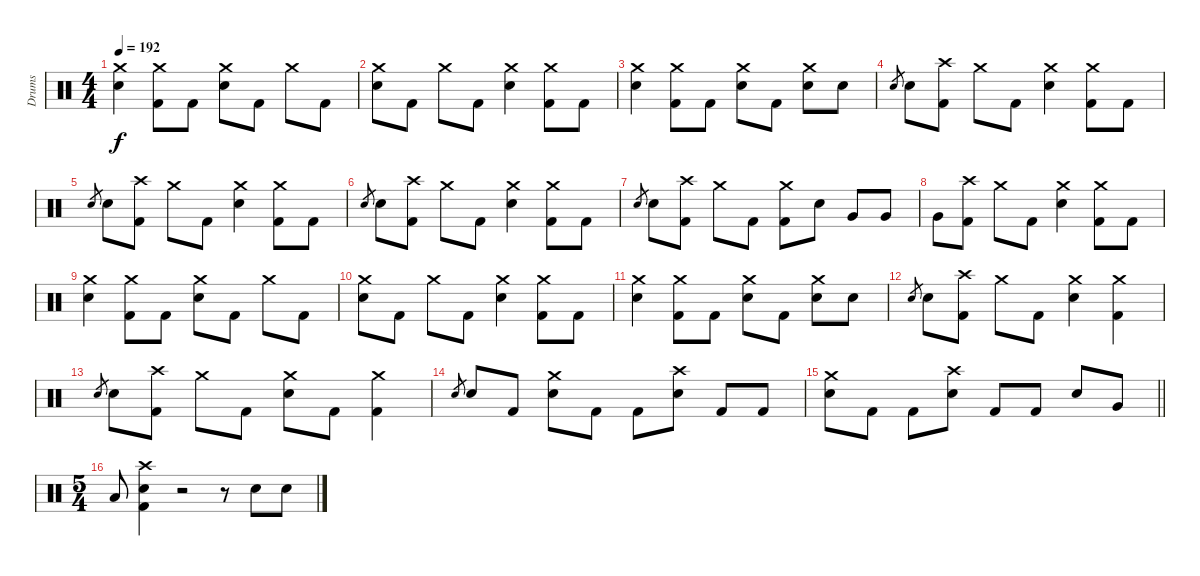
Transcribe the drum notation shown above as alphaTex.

\track ("Drums" "Drums") {instrument percussion}
\staff {score}
\articulation defaults
\ts (4 4)
\tempo 192
\clef neutral
\ks c
("Crash medium (hit)" "Electric Snare (hit)").4{dy f} ("Crash medium (hit)" "Kick (hit) 2").8 "Kick (hit) 2".8 ("Crash medium (hit)" "Electric Snare (hit)").8 "Kick (hit) 2".8 "Crash medium (hit)".8 "Kick (hit) 2".8 |
("Crash medium (hit)" "Electric Snare (hit)").8 "Kick (hit) 2".8 "Crash medium (hit)".8 "Kick (hit) 2".8 ("Crash medium (hit)" "Electric Snare (hit)").4 ("Crash medium (hit)" "Kick (hit) 2").8 "Kick (hit) 2".8 |
("Crash medium (hit)" "Electric Snare (hit)").4 ("Crash medium (hit)" "Kick (hit) 2").8 "Kick (hit) 2".8 ("Crash medium (hit)" "Electric Snare (hit)").8 "Kick (hit) 2".8 ("Crash medium (hit)" "Electric Snare (hit)").8 "Electric Snare (hit)".8 |
"Electric Snare (hit)".8{gr} "Electric Snare (hit)".8 ("Crash high (hit)" "Kick (hit) 2").8 "Crash medium (hit)".8 "Kick (hit) 2".8 ("Crash medium (hit)" "Electric Snare (hit)").4 ("Crash medium (hit)" "Kick (hit) 2").8 "Kick (hit) 2".8 |
"Electric Snare (hit)".8{gr} "Electric Snare (hit)".8 ("Crash high (hit)" "Kick (hit) 2").8 "Crash medium (hit)".8 "Kick (hit) 2".8 ("Crash medium (hit)" "Electric Snare (hit)").4 ("Crash medium (hit)" "Kick (hit) 2").8 "Kick (hit) 2".8 |
"Electric Snare (hit)".8{gr} "Electric Snare (hit)".8 ("Crash high (hit)" "Kick (hit) 2").8 "Crash medium (hit)".8 "Kick (hit) 2".8 ("Crash medium (hit)" "Electric Snare (hit)").4 ("Crash medium (hit)" "Kick (hit) 2").8 "Kick (hit) 2".8 |
"Electric Snare (hit)".8{gr} "Electric Snare (hit)".8 ("Crash high (hit)" "Kick (hit) 2").8 "Crash medium (hit)".8 "Kick (hit) 2".8 ("Crash medium (hit)" "Kick (hit) 2").8 "Electric Snare (hit)".8 "Very Low Tom (hit)".8 "Very Low Tom (hit)".8 |
"Very Low Tom (hit)".8 ("Crash high (hit)" "Kick (hit) 2").8 "Crash medium (hit)".8 "Kick (hit) 2".8 ("Crash medium (hit)" "Electric Snare (hit)").4 ("Crash medium (hit)" "Kick (hit) 2").8 "Kick (hit) 2".8 |
("Crash medium (hit)" "Electric Snare (hit)").4 ("Crash medium (hit)" "Kick (hit) 2").8 "Kick (hit) 2".8 ("Crash medium (hit)" "Electric Snare (hit)").8 "Kick (hit) 2".8 "Crash medium (hit)".8 "Kick (hit) 2".8 |
("Crash medium (hit)" "Electric Snare (hit)").8 "Kick (hit) 2".8 "Crash medium (hit)".8 "Kick (hit) 2".8 ("Crash medium (hit)" "Electric Snare (hit)").4 ("Crash medium (hit)" "Kick (hit) 2").8 "Kick (hit) 2".8 |
("Crash medium (hit)" "Electric Snare (hit)").4 ("Crash medium (hit)" "Kick (hit) 2").8 "Kick (hit) 2".8 ("Crash medium (hit)" "Electric Snare (hit)").8 "Kick (hit) 2".8 ("Crash medium (hit)" "Electric Snare (hit)").8 "Electric Snare (hit)".8 |
"Electric Snare (hit)".8{gr} "Electric Snare (hit)".8 ("Crash high (hit)" "Kick (hit) 2").8 "Crash medium (hit)".8 "Kick (hit) 2".8 ("Crash medium (hit)" "Electric Snare (hit)").4 ("Crash medium (hit)" "Kick (hit) 2").4 |
"Electric Snare (hit)".8{gr} "Electric Snare (hit)".8 ("Crash high (hit)" "Kick (hit) 2").8 "Crash medium (hit)".8 "Kick (hit) 2".8 ("Crash medium (hit)" "Electric Snare (hit)").8 "Kick (hit) 2".8 ("Crash medium (hit)" "Kick (hit) 2").4 |
"Electric Snare (hit)".8{gr} "Electric Snare (hit)".8 "Kick (hit) 2".8 ("Crash medium (hit)" "Electric Snare (hit)").8 "Kick (hit) 2".8 "Kick (hit) 2".8 ("Crash high (hit)" "Electric Snare (hit)").8 "Kick (hit) 2".8 "Kick (hit) 2".8 |
\barLineRight lightlight
("Crash medium (hit)" "Electric Snare (hit)").8 "Kick (hit) 2".8 "Kick (hit) 2".8 ("Crash high (hit)" "Electric Snare (hit)").8 "Kick (hit) 2".8 "Kick (hit) 2".8 "Electric Snare (hit)".8 "Very Low Tom (hit)".8 |
\ts (5 4)
"Low Tom (hit)".8 ("Crash high (hit)" "Electric Snare (hit)" "Kick (hit) 2").4 r.2 r.8{volume 3} "Electric Snare (hit)".8 "Electric Snare (hit)".8{volume 13}
